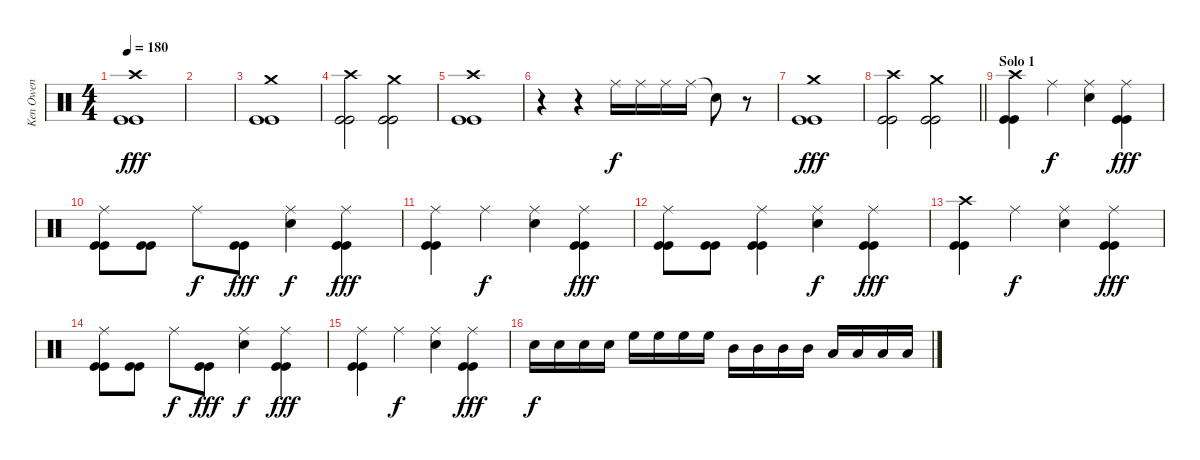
\track ("Ken Owen" "Ken Owen") {instrument percussion}
\staff {score}
\articulation defaults
\ts (4 4)
\tempo 180
\clef neutral
\ks c
("Crash high (hit)" "Kick (hit)" "Kick (hit)").1{dy fff} |
|
("Crash medium (hit)" "Kick (hit)" "Kick (hit)").1 |
("Crash high (hit)" "Kick (hit)" "Kick (hit)").2 ("Crash medium (hit)" "Kick (hit)" "Kick (hit)").2 |
("Crash high (hit)" "Kick (hit)" "Kick (hit)").1 |
r.4 r.4 "Ride (middle)".16{dy f} "Ride (middle)".16 "Ride (middle)".16 "Ride (middle)".16 "Snare (hit)"{t}.8 r.8 |
("Crash medium (hit)" "Kick (hit)" "Kick (hit)").1{dy fff} |
\barLineRight lightlight
("Crash high (hit)" "Kick (hit)" "Kick (hit)").2 ("Crash medium (hit)" "Kick (hit)" "Kick (hit)").2 |
\section ("" "Solo 1")
("Crash high (hit)" "Kick (hit)" "Kick (hit)").4 "Ride (middle)".4{dy f} ("Ride (middle)" "Snare (hit) 2").4 ("Ride (middle)" "Kick (hit)" "Kick (hit)").4{dy fff} |
("Ride (middle)" "Kick (hit)" "Kick (hit)").8 ("Kick (hit)" "Kick (hit)").8 "Ride (middle)".8{dy f} ("Kick (hit)" "Kick (hit)").8{dy fff} ("Ride (middle)" "Snare (hit) 2").4{dy f} ("Ride (middle)" "Kick (hit)" "Kick (hit)").4{dy fff} |
("Ride (middle)" "Kick (hit)" "Kick (hit)").4 "Ride (middle)".4{dy f} ("Ride (middle)" "Snare (hit) 2").4 ("Ride (middle)" "Kick (hit)" "Kick (hit)").4{dy fff} |
("Ride (middle)" "Kick (hit)" "Kick (hit)").8 ("Kick (hit)" "Kick (hit)").8 ("Ride (middle)" "Kick (hit)" "Kick (hit)").4 ("Ride (middle)" "Snare (hit) 2").4{dy f} ("Ride (middle)" "Kick (hit)" "Kick (hit)").4{dy fff} |
("Crash high (hit)" "Kick (hit)" "Kick (hit)").4 "Ride (middle)".4{dy f} ("Ride (middle)" "Snare (hit) 2").4 ("Ride (middle)" "Kick (hit)" "Kick (hit)").4{dy fff} |
("Ride (middle)" "Kick (hit)" "Kick (hit)").8 ("Kick (hit)" "Kick (hit)").8 "Ride (middle)".8{dy f} ("Kick (hit)" "Kick (hit)").8{dy fff} ("Ride (middle)" "Snare (hit) 2").4{dy f} ("Ride (middle)" "Kick (hit)" "Kick (hit)").4{dy fff} |
("Ride (middle)" "Kick (hit)" "Kick (hit)").4 "Ride (middle)".4{dy f} ("Ride (middle)" "Snare (hit) 2").4 ("Ride (middle)" "Kick (hit)" "Kick (hit)").4{dy fff} |
"Snare (hit) 2".16{dy f} "Snare (hit) 2".16 "Snare (hit) 2".16 "Snare (hit) 2".16 "High Floor Tom (hit)".16 "High Floor Tom (hit)".16 "High Floor Tom (hit)".16 "High Floor Tom (hit)".16 "Mid Tom (hit)".16 "Mid Tom (hit)".16 "Mid Tom (hit)".16 "Mid Tom (hit)".16 "Low Tom (hit)".16 "Low Tom (hit)".16 "Low Tom (hit)".16 "Low Tom (hit)".16
